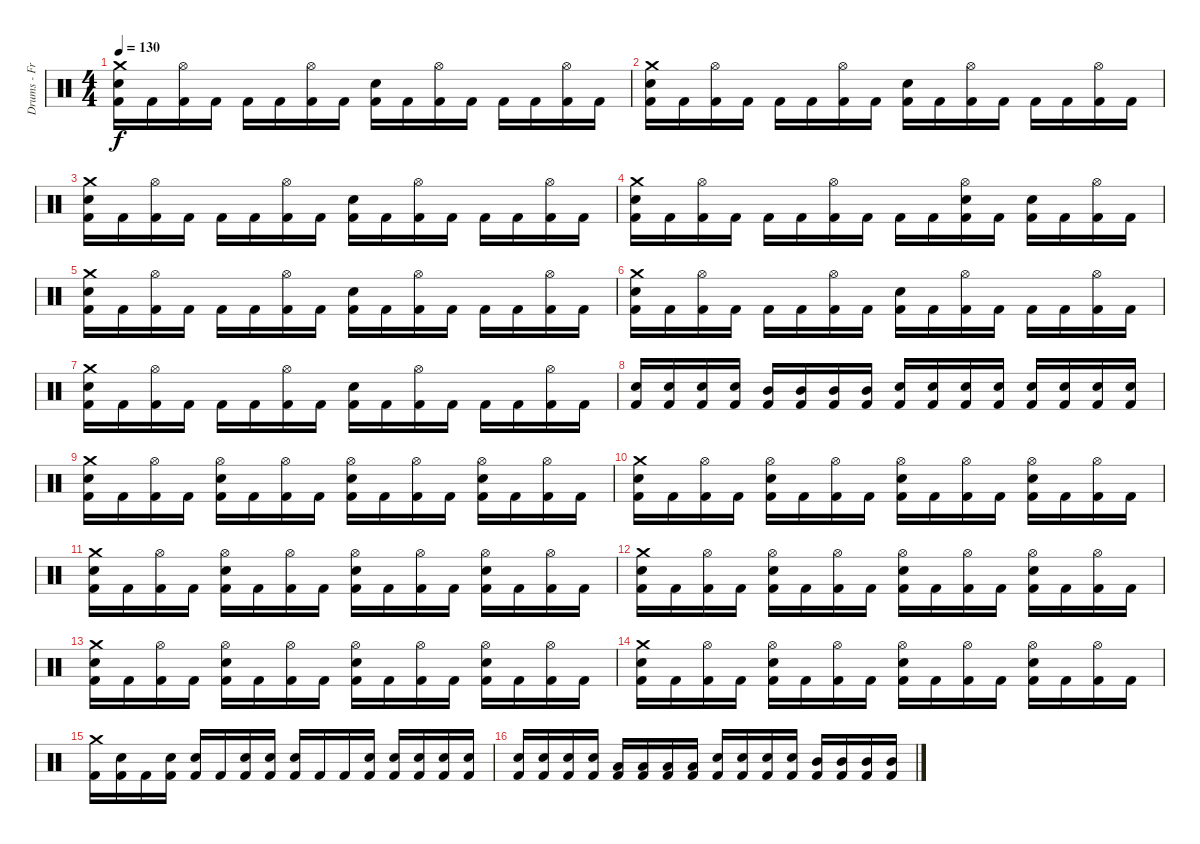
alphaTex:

\track ("Drums - Fredrik Andersson" "Drums - Fr") {instrument percussion}
\staff {score}
\articulation defaults
\ts (4 4)
\tempo 130
\clef neutral
\ks c
("Kick (hit) 2" "Snare (hit) 2" "Crash medium (hit)").16{dy f} "Kick (hit) 2".16 ("Kick (hit) 2" "Hi-Hat (open)").16 "Kick (hit) 2".16 "Kick (hit) 2".16 "Kick (hit) 2".16 ("Kick (hit) 2" "Hi-Hat (open)").16 "Kick (hit) 2".16 ("Kick (hit) 2" "Snare (hit) 2").16 "Kick (hit) 2".16 ("Kick (hit) 2" "Hi-Hat (open)").16 "Kick (hit) 2".16 "Kick (hit) 2".16 "Kick (hit) 2".16 ("Kick (hit) 2" "Hi-Hat (open)").16 "Kick (hit) 2".16 |
("Kick (hit) 2" "Snare (hit) 2" "Crash medium (hit)").16 "Kick (hit) 2".16 ("Kick (hit) 2" "Hi-Hat (open)").16 "Kick (hit) 2".16 "Kick (hit) 2".16 "Kick (hit) 2".16 ("Kick (hit) 2" "Hi-Hat (open)").16 "Kick (hit) 2".16 ("Kick (hit) 2" "Snare (hit) 2").16 "Kick (hit) 2".16 ("Kick (hit) 2" "Hi-Hat (open)").16 "Kick (hit) 2".16 "Kick (hit) 2".16 "Kick (hit) 2".16 ("Kick (hit) 2" "Hi-Hat (open)").16 "Kick (hit) 2".16 |
("Kick (hit) 2" "Snare (hit) 2" "Crash medium (hit)").16 "Kick (hit) 2".16 ("Kick (hit) 2" "Hi-Hat (open)").16 "Kick (hit) 2".16 "Kick (hit) 2".16 "Kick (hit) 2".16 ("Kick (hit) 2" "Hi-Hat (open)").16 "Kick (hit) 2".16 ("Kick (hit) 2" "Snare (hit) 2").16 "Kick (hit) 2".16 ("Kick (hit) 2" "Hi-Hat (open)").16 "Kick (hit) 2".16 "Kick (hit) 2".16 "Kick (hit) 2".16 ("Kick (hit) 2" "Hi-Hat (open)").16 "Kick (hit) 2".16 |
("Kick (hit) 2" "Snare (hit) 2" "Crash medium (hit)").16 "Kick (hit) 2".16 ("Kick (hit) 2" "Hi-Hat (open)").16 "Kick (hit) 2".16 "Kick (hit) 2".16 "Kick (hit) 2".16 ("Kick (hit) 2" "Hi-Hat (open)").16 "Kick (hit) 2".16 "Kick (hit) 2".16 "Kick (hit) 2".16 ("Kick (hit) 2" "Snare (hit) 2" "Hi-Hat (open)").16 "Kick (hit) 2".16 ("Kick (hit) 2" "Snare (hit) 2").16 "Kick (hit) 2".16 ("Kick (hit) 2" "Hi-Hat (open)").16 "Kick (hit) 2".16 |
("Kick (hit) 2" "Snare (hit) 2" "Crash medium (hit)").16 "Kick (hit) 2".16 ("Kick (hit) 2" "Hi-Hat (open)").16 "Kick (hit) 2".16 "Kick (hit) 2".16 "Kick (hit) 2".16 ("Kick (hit) 2" "Hi-Hat (open)").16 "Kick (hit) 2".16 ("Kick (hit) 2" "Snare (hit) 2").16 "Kick (hit) 2".16 ("Kick (hit) 2" "Hi-Hat (open)").16 "Kick (hit) 2".16 "Kick (hit) 2".16 "Kick (hit) 2".16 ("Kick (hit) 2" "Hi-Hat (open)").16 "Kick (hit) 2".16 |
("Kick (hit) 2" "Snare (hit) 2" "Crash medium (hit)").16 "Kick (hit) 2".16 ("Kick (hit) 2" "Hi-Hat (open)").16 "Kick (hit) 2".16 "Kick (hit) 2".16 "Kick (hit) 2".16 ("Kick (hit) 2" "Hi-Hat (open)").16 "Kick (hit) 2".16 ("Kick (hit) 2" "Snare (hit) 2").16 "Kick (hit) 2".16 ("Kick (hit) 2" "Hi-Hat (open)").16 "Kick (hit) 2".16 "Kick (hit) 2".16 "Kick (hit) 2".16 ("Kick (hit) 2" "Hi-Hat (open)").16 "Kick (hit) 2".16 |
("Kick (hit) 2" "Snare (hit) 2" "Crash medium (hit)").16 "Kick (hit) 2".16 ("Kick (hit) 2" "Hi-Hat (open)").16 "Kick (hit) 2".16 "Kick (hit) 2".16 "Kick (hit) 2".16 ("Kick (hit) 2" "Hi-Hat (open)").16 "Kick (hit) 2".16 ("Kick (hit) 2" "Snare (hit) 2").16 "Kick (hit) 2".16 ("Kick (hit) 2" "Hi-Hat (open)").16 "Kick (hit) 2".16 "Kick (hit) 2".16 "Kick (hit) 2".16 ("Kick (hit) 2" "Hi-Hat (open)").16 "Kick (hit) 2".16 |
("Kick (hit) 2" "Snare (hit) 2").16 ("Kick (hit) 2" "Snare (hit) 2").16 ("Kick (hit) 2" "Snare (hit) 2").16 ("Kick (hit) 2" "Snare (hit) 2").16 ("Kick (hit) 2" "Mid Tom (hit)").16 ("Kick (hit) 2" "Mid Tom (hit)").16 ("Kick (hit) 2" "Mid Tom (hit)").16 ("Kick (hit) 2" "Mid Tom (hit)").16 ("Kick (hit) 2" "Snare (hit) 2").16 ("Kick (hit) 2" "Snare (hit) 2").16 ("Kick (hit) 2" "Snare (hit) 2").16 ("Kick (hit) 2" "Snare (hit) 2").16 ("Kick (hit) 2" "Electric Snare (hit)").16 ("Kick (hit) 2" "Electric Snare (hit)").16 ("Kick (hit) 2" "Electric Snare (hit)").16 ("Kick (hit) 2" "Electric Snare (hit)").16 |
("Kick (hit) 2" "Snare (hit) 2" "Crash medium (hit)").16 "Kick (hit) 2".16 ("Kick (hit) 2" "Hi-Hat (open)").16 "Kick (hit) 2".16 ("Kick (hit) 2" "Snare (hit) 2" "Hi-Hat (open)").16 "Kick (hit) 2".16 ("Kick (hit) 2" "Hi-Hat (open)").16 "Kick (hit) 2".16 ("Kick (hit) 2" "Snare (hit) 2" "Hi-Hat (open)").16 "Kick (hit) 2".16 ("Kick (hit) 2" "Hi-Hat (open)").16 "Kick (hit) 2".16 ("Kick (hit) 2" "Snare (hit) 2" "Hi-Hat (open)").16 "Kick (hit) 2".16 ("Kick (hit) 2" "Hi-Hat (open)").16 "Kick (hit) 2".16 |
("Kick (hit) 2" "Snare (hit) 2" "Crash medium (hit)").16 "Kick (hit) 2".16 ("Kick (hit) 2" "Hi-Hat (open)").16 "Kick (hit) 2".16 ("Kick (hit) 2" "Snare (hit) 2" "Hi-Hat (open)").16 "Kick (hit) 2".16 ("Kick (hit) 2" "Hi-Hat (open)").16 "Kick (hit) 2".16 ("Kick (hit) 2" "Snare (hit) 2" "Hi-Hat (open)").16 "Kick (hit) 2".16 ("Kick (hit) 2" "Hi-Hat (open)").16 "Kick (hit) 2".16 ("Kick (hit) 2" "Snare (hit) 2" "Hi-Hat (open)").16 "Kick (hit) 2".16 ("Kick (hit) 2" "Hi-Hat (open)").16 "Kick (hit) 2".16 |
("Kick (hit) 2" "Snare (hit) 2" "Crash medium (hit)").16 "Kick (hit) 2".16 ("Kick (hit) 2" "Hi-Hat (open)").16 "Kick (hit) 2".16 ("Kick (hit) 2" "Snare (hit) 2" "Hi-Hat (open)").16 "Kick (hit) 2".16 ("Kick (hit) 2" "Hi-Hat (open)").16 "Kick (hit) 2".16 ("Kick (hit) 2" "Snare (hit) 2" "Hi-Hat (open)").16 "Kick (hit) 2".16 ("Kick (hit) 2" "Hi-Hat (open)").16 "Kick (hit) 2".16 ("Kick (hit) 2" "Snare (hit) 2" "Hi-Hat (open)").16 "Kick (hit) 2".16 ("Kick (hit) 2" "Hi-Hat (open)").16 "Kick (hit) 2".16 |
("Kick (hit) 2" "Snare (hit) 2" "Crash medium (hit)").16 "Kick (hit) 2".16 ("Kick (hit) 2" "Hi-Hat (open)").16 "Kick (hit) 2".16 ("Kick (hit) 2" "Snare (hit) 2" "Hi-Hat (open)").16 "Kick (hit) 2".16 ("Kick (hit) 2" "Hi-Hat (open)").16 "Kick (hit) 2".16 ("Kick (hit) 2" "Snare (hit) 2" "Hi-Hat (open)").16 "Kick (hit) 2".16 ("Kick (hit) 2" "Hi-Hat (open)").16 "Kick (hit) 2".16 ("Kick (hit) 2" "Snare (hit) 2" "Hi-Hat (open)").16 "Kick (hit) 2".16 ("Kick (hit) 2" "Hi-Hat (open)").16 "Kick (hit) 2".16 |
("Kick (hit) 2" "Snare (hit) 2" "Crash medium (hit)").16 "Kick (hit) 2".16 ("Kick (hit) 2" "Hi-Hat (open)").16 "Kick (hit) 2".16 ("Kick (hit) 2" "Snare (hit) 2" "Hi-Hat (open)").16 "Kick (hit) 2".16 ("Kick (hit) 2" "Hi-Hat (open)").16 "Kick (hit) 2".16 ("Kick (hit) 2" "Snare (hit) 2" "Hi-Hat (open)").16 "Kick (hit) 2".16 ("Kick (hit) 2" "Hi-Hat (open)").16 "Kick (hit) 2".16 ("Kick (hit) 2" "Snare (hit) 2" "Hi-Hat (open)").16 "Kick (hit) 2".16 ("Kick (hit) 2" "Hi-Hat (open)").16 "Kick (hit) 2".16 |
("Kick (hit) 2" "Snare (hit) 2" "Crash medium (hit)").16 "Kick (hit) 2".16 ("Kick (hit) 2" "Hi-Hat (open)").16 "Kick (hit) 2".16 ("Kick (hit) 2" "Snare (hit) 2" "Hi-Hat (open)").16 "Kick (hit) 2".16 ("Kick (hit) 2" "Hi-Hat (open)").16 "Kick (hit) 2".16 ("Kick (hit) 2" "Snare (hit) 2" "Hi-Hat (open)").16 "Kick (hit) 2".16 ("Kick (hit) 2" "Hi-Hat (open)").16 "Kick (hit) 2".16 ("Kick (hit) 2" "Snare (hit) 2" "Hi-Hat (open)").16 "Kick (hit) 2".16 ("Kick (hit) 2" "Hi-Hat (open)").16 "Kick (hit) 2".16 |
("Kick (hit) 2" "Crash medium (hit)").16 ("Kick (hit) 2" "Snare (hit) 2").16 "Kick (hit) 2".16 ("Kick (hit) 2" "Snare (hit) 2").16 ("Kick (hit) 2" "Snare (hit) 2").16 "Kick (hit) 2".16 ("Kick (hit) 2" "Snare (hit) 2").16 ("Kick (hit) 2" "Snare (hit) 2").16 ("Kick (hit) 2" "Snare (hit) 2").16 "Kick (hit) 2".16 "Kick (hit) 2".16 ("Kick (hit) 2" "Snare (hit) 2").16 ("Kick (hit) 2" "Snare (hit) 2").16 ("Kick (hit) 2" "Snare (hit) 2").16 ("Kick (hit) 2" "Snare (hit) 2").16 ("Kick (hit) 2" "Snare (hit) 2").16 |
("Kick (hit) 2" "Snare (hit) 2").16 ("Kick (hit) 2" "Snare (hit) 2").16 ("Kick (hit) 2" "Snare (hit) 2").16 ("Kick (hit) 2" "Snare (hit) 2").16 ("Kick (hit) 2" "Low Tom (hit)").16 ("Kick (hit) 2" "Low Tom (hit)").16 ("Kick (hit) 2" "Low Tom (hit)").16 ("Kick (hit) 2" "Low Tom (hit)").16 ("Kick (hit) 2" "Snare (hit) 2").16 ("Kick (hit) 2" "Snare (hit) 2").16 ("Kick (hit) 2" "Snare (hit) 2").16 ("Kick (hit) 2" "Snare (hit) 2").16 ("Kick (hit) 2" "Mid Tom (hit)").16 ("Kick (hit) 2" "Mid Tom (hit)").16 ("Kick (hit) 2" "Mid Tom (hit)").16 ("Kick (hit) 2" "Mid Tom (hit)").16
